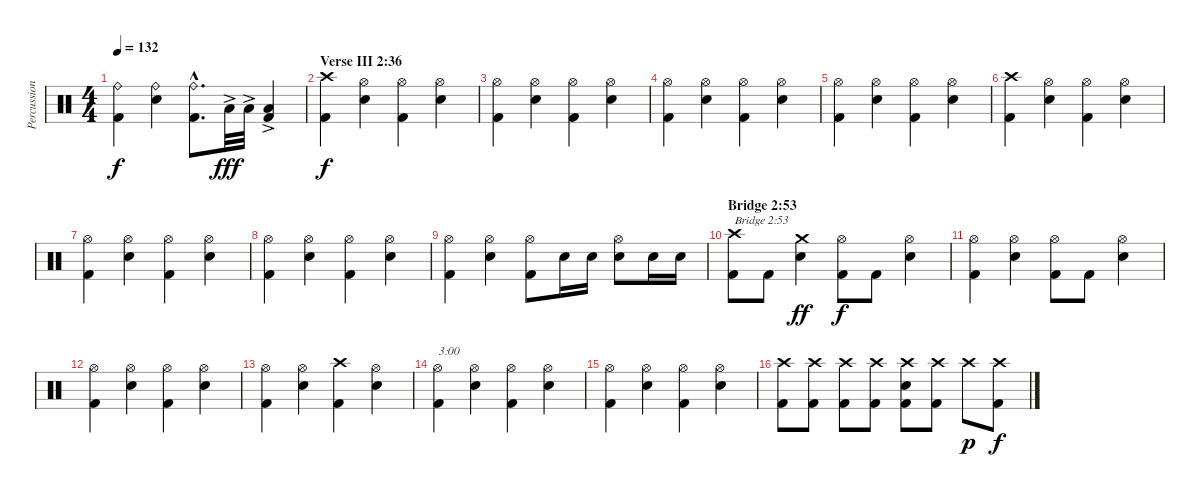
\track ("Percussion" "Percussion") {instrument percussion}
\staff {score}
\articulation defaults
\ts (4 4)
\tempo 132
\clef neutral
\ks c
("Kick (hit) 2" "Ride (bell)").4{dy f} ("Electric Snare (hit)" "Ride (bell)").4 ("Kick (hit) 2"{hac} "Ride (bell)"{hac}).8{d} "Low Tom (hit)"{ac}.32{dy fff} "Low Tom (hit)"{ac}.32 ("Kick (hit) 2" "Low Tom (hit)"{ac}).4 |
\section ("" "Verse III 2:36")
("Kick (hit) 2" "Crash high (hit)").4{dy f} ("Electric Snare (hit)" "Hi-Hat (open)").4 ("Kick (hit) 2" "Hi-Hat (open)").4 ("Electric Snare (hit)" "Hi-Hat (open)").4 |
("Kick (hit) 2" "Hi-Hat (open)").4 ("Electric Snare (hit)" "Hi-Hat (open)").4 ("Kick (hit) 2" "Hi-Hat (open)").4 ("Electric Snare (hit)" "Hi-Hat (open)").4 |
("Kick (hit) 2" "Hi-Hat (open)").4 ("Electric Snare (hit)" "Hi-Hat (open)").4 ("Kick (hit) 2" "Hi-Hat (open)").4 ("Electric Snare (hit)" "Hi-Hat (open)").4 |
("Kick (hit) 2" "Hi-Hat (open)").4 ("Electric Snare (hit)" "Hi-Hat (open)").4 ("Kick (hit) 2" "Hi-Hat (open)").4 ("Electric Snare (hit)" "Hi-Hat (open)").4 |
("Kick (hit) 2" "Crash high (hit)").4 ("Electric Snare (hit)" "Hi-Hat (open)").4 ("Kick (hit) 2" "Hi-Hat (open)").4 ("Electric Snare (hit)" "Hi-Hat (open)").4 |
("Kick (hit) 2" "Hi-Hat (open)").4 ("Electric Snare (hit)" "Hi-Hat (open)").4 ("Kick (hit) 2" "Hi-Hat (open)").4 ("Electric Snare (hit)" "Hi-Hat (open)").4 |
("Kick (hit) 2" "Hi-Hat (open)").4 ("Electric Snare (hit)" "Hi-Hat (open)").4 ("Kick (hit) 2" "Hi-Hat (open)").4 ("Electric Snare (hit)" "Hi-Hat (open)").4 |
("Kick (hit) 2" "Hi-Hat (open)").4 ("Electric Snare (hit)" "Hi-Hat (open)").4 ("Kick (hit) 2" "Hi-Hat (open)").8 "Electric Snare (hit)".16 "Electric Snare (hit)".16 ("Electric Snare (hit)" "Hi-Hat (open)").8 "Electric Snare (hit)".16 "Electric Snare (hit)".16 |
\section ("" "Bridge 2:53")
("Kick (hit) 2" "Crash high (hit)").8{txt "Bridge 2:53"} "Kick (hit) 2".8 ("Electric Snare (hit)" "Crash medium (hit)").4{dy ff} ("Kick (hit) 2" "Hi-Hat (open)").8{dy f} "Kick (hit) 2".8 ("Electric Snare (hit)" "Hi-Hat (open)").4 |
("Kick (hit) 2" "Hi-Hat (open)").4 ("Electric Snare (hit)" "Hi-Hat (open)").4 ("Kick (hit) 2" "Hi-Hat (open)").8 "Kick (hit) 2".8 ("Electric Snare (hit)" "Hi-Hat (open)").4 |
("Kick (hit) 2" "Hi-Hat (open)").4 ("Electric Snare (hit)" "Hi-Hat (open)").4 ("Kick (hit) 2" "Hi-Hat (open)").4 ("Electric Snare (hit)" "Hi-Hat (open)").4 |
("Kick (hit) 2" "Hi-Hat (open)").4 ("Electric Snare (hit)" "Hi-Hat (open)").4 ("Kick (hit) 2" "Crash high (hit)").4 ("Electric Snare (hit)" "Hi-Hat (open)").4 |
("Kick (hit) 2" "Hi-Hat (open)").4{txt "3:00"} ("Electric Snare (hit)" "Hi-Hat (open)").4 ("Kick (hit) 2" "Hi-Hat (open)").4 ("Electric Snare (hit)" "Hi-Hat (open)").4 |
("Kick (hit) 2" "Hi-Hat (open)").4 ("Electric Snare (hit)" "Hi-Hat (open)").4 ("Kick (hit) 2" "Hi-Hat (open)").4 ("Electric Snare (hit)" "Hi-Hat (open)").4 |
("Kick (hit) 2" "Crash high (hit)").8 ("Kick (hit) 2" "Crash high (hit)").8 ("Kick (hit) 2" "Crash high (hit)").8 ("Kick (hit) 2" "Crash high (hit)").8 ("Kick (hit) 2" "Electric Snare (hit)" "Crash high (hit)").8 ("Kick (hit) 2" "Crash high (hit)").8 "Crash high (hit)".8{dy p} ("Kick (hit) 2" "Crash high (hit)").8{dy f}
